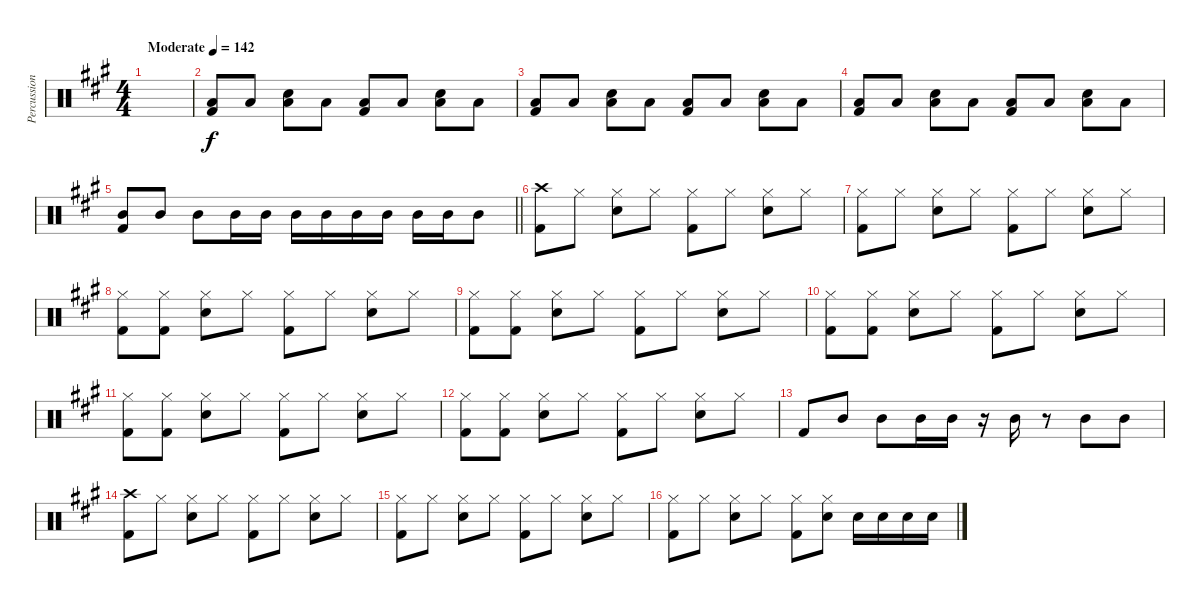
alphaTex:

\track ("Percussion" "Percussion") {instrument percussion}
\staff {score}
\articulation defaults
\ts (4 4)
\tempo (142 "Moderate")
\clef neutral
\ks a
|
("Low Floor Tom (hit)" "Kick (hit) 2").8 "Low Floor Tom (hit)".8 ("Snare (hit) 2" "Low Floor Tom (hit)").8 "Low Floor Tom (hit)".8 ("Low Floor Tom (hit)" "Kick (hit) 2").8 "Low Floor Tom (hit)".8 ("Snare (hit) 2" "Low Floor Tom (hit)").8 "Low Floor Tom (hit)".8 |
("Low Floor Tom (hit)" "Kick (hit) 2").8 "Low Floor Tom (hit)".8 ("Snare (hit) 2" "Low Floor Tom (hit)").8 "Low Floor Tom (hit)".8 ("Low Floor Tom (hit)" "Kick (hit) 2").8 "Low Floor Tom (hit)".8 ("Snare (hit) 2" "Low Floor Tom (hit)").8 "Low Floor Tom (hit)".8 |
("Low Floor Tom (hit)" "Kick (hit) 2").8 "Low Floor Tom (hit)".8 ("Snare (hit) 2" "Low Floor Tom (hit)").8 "Low Floor Tom (hit)".8 ("Low Floor Tom (hit)" "Kick (hit) 2").8 "Low Floor Tom (hit)".8 ("Snare (hit) 2" "Low Floor Tom (hit)").8 "Low Floor Tom (hit)".8 |
\barLineRight lightlight
("Mid Tom (hit)" "Kick (hit) 2").8 "Mid Tom (hit)".8 "Mid Tom (hit)".8 "Mid Tom (hit)".16 "Mid Tom (hit)".16 "Mid Tom (hit)".16 "Mid Tom (hit)".16 "Mid Tom (hit)".16 "Mid Tom (hit)".16 "Mid Tom (hit)".16 "Mid Tom (hit)".16 "Mid Tom (hit)".8 |
("Crash high (hit)" "Kick (hit) 2").8 "Hi-Hat (closed)".8 ("Hi-Hat (closed)" "Snare (hit) 2").8 "Hi-Hat (closed)".8 ("Hi-Hat (closed)" "Kick (hit) 2").8 "Hi-Hat (closed)".8 ("Hi-Hat (closed)" "Snare (hit) 2").8 "Hi-Hat (closed)".8 |
("Hi-Hat (closed)" "Kick (hit) 2").8 "Hi-Hat (closed)".8 ("Hi-Hat (closed)" "Snare (hit) 2").8 "Hi-Hat (closed)".8 ("Hi-Hat (closed)" "Kick (hit) 2").8 "Hi-Hat (closed)".8 ("Hi-Hat (closed)" "Snare (hit) 2").8 "Hi-Hat (closed)".8 |
("Hi-Hat (closed)" "Kick (hit) 2").8 ("Hi-Hat (closed)" "Kick (hit) 2").8 ("Hi-Hat (closed)" "Snare (hit) 2").8 "Hi-Hat (closed)".8 ("Hi-Hat (closed)" "Kick (hit) 2").8 "Hi-Hat (closed)".8 ("Hi-Hat (closed)" "Snare (hit) 2").8 "Hi-Hat (closed)".8 |
("Hi-Hat (closed)" "Kick (hit) 2").8 ("Hi-Hat (closed)" "Kick (hit) 2").8 ("Hi-Hat (closed)" "Snare (hit) 2").8 "Hi-Hat (closed)".8 ("Hi-Hat (closed)" "Kick (hit) 2").8 "Hi-Hat (closed)".8 ("Hi-Hat (closed)" "Snare (hit) 2").8 "Hi-Hat (closed)".8 |
("Hi-Hat (closed)" "Kick (hit) 2").8 ("Hi-Hat (closed)" "Kick (hit) 2").8 ("Hi-Hat (closed)" "Snare (hit) 2").8 "Hi-Hat (closed)".8 ("Hi-Hat (closed)" "Kick (hit) 2").8 "Hi-Hat (closed)".8 ("Hi-Hat (closed)" "Snare (hit) 2").8 "Hi-Hat (closed)".8 |
("Hi-Hat (closed)" "Kick (hit) 2").8 ("Hi-Hat (closed)" "Kick (hit) 2").8 ("Hi-Hat (closed)" "Snare (hit) 2").8 "Hi-Hat (closed)".8 ("Hi-Hat (closed)" "Kick (hit) 2").8 "Hi-Hat (closed)".8 ("Hi-Hat (closed)" "Snare (hit) 2").8 "Hi-Hat (closed)".8 |
("Hi-Hat (closed)" "Kick (hit) 2").8 ("Hi-Hat (closed)" "Kick (hit) 2").8 ("Hi-Hat (closed)" "Snare (hit) 2").8 "Hi-Hat (closed)".8 ("Hi-Hat (closed)" "Kick (hit) 2").8 "Hi-Hat (closed)".8 ("Hi-Hat (closed)" "Snare (hit) 2").8 "Hi-Hat (closed)".8 |
"Kick (hit) 2".8 "Mid Tom (hit)".8 "Mid Tom (hit)".8 "Mid Tom (hit)".16 "Mid Tom (hit)".16 r.16 "Mid Tom (hit)".16 r.8 "Mid Tom (hit)".8 "Mid Tom (hit)".8 |
("Crash high (hit)" "Kick (hit) 2").8 "Hi-Hat (closed)".8 ("Hi-Hat (closed)" "Snare (hit) 2").8 "Hi-Hat (closed)".8 ("Hi-Hat (closed)" "Kick (hit) 2").8 "Hi-Hat (closed)".8 ("Hi-Hat (closed)" "Snare (hit) 2").8 "Hi-Hat (closed)".8 |
("Hi-Hat (closed)" "Kick (hit) 2").8 "Hi-Hat (closed)".8 ("Hi-Hat (closed)" "Snare (hit) 2").8 "Hi-Hat (closed)".8 ("Hi-Hat (closed)" "Kick (hit) 2").8 "Hi-Hat (closed)".8 ("Hi-Hat (closed)" "Snare (hit) 2").8 "Hi-Hat (closed)".8 |
("Hi-Hat (closed)" "Kick (hit) 2").8 "Hi-Hat (closed)".8 ("Hi-Hat (closed)" "Snare (hit) 2").8 "Hi-Hat (closed)".8 ("Hi-Hat (closed)" "Kick (hit) 2").8 ("Hi-Hat (closed)" "Snare (hit) 2").8 "Snare (hit) 2".16 "Snare (hit) 2".16 "Snare (hit) 2".16 "Snare (hit) 2".16
